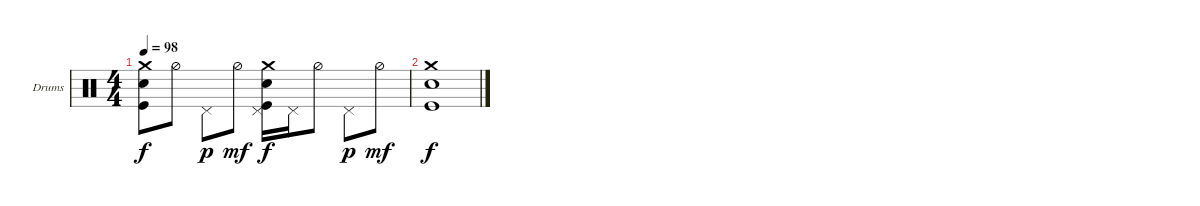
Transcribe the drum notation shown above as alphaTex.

\defaultSystemsLayout 4
\bracketExtendMode groupsimilarinstruments
\firstSystemTrackNameOrientation horizontal
\otherSystemsTrackNameOrientation horizontal
\track ("Е. Кулаков" "Drums") {instrument percussion}
\staff {score}
\articulation defaults
\ts (4 4)
\tempo 98
\clef neutral
\ks c
("Kick (hit)" "Snare (hit) 2" "Crash medium (hit)").8{dy f} "Hi-Hat (half)".8 "Pedal Hi-Hat (hit)".8{dy p} "Hi-Hat (half)".8{dy mf} ("Pedal Hi-Hat (hit)" "Kick (hit)" "Snare (hit) 2" "Crash medium (hit)").16{dy f} "Pedal Hi-Hat (hit)".16 "Hi-Hat (half)".8 "Pedal Hi-Hat (hit)".8{dy p} "Hi-Hat (half)".8{dy mf} |
("Kick (hit)" "Snare (hit) 2" "Crash medium (hit)").1{dy f}
